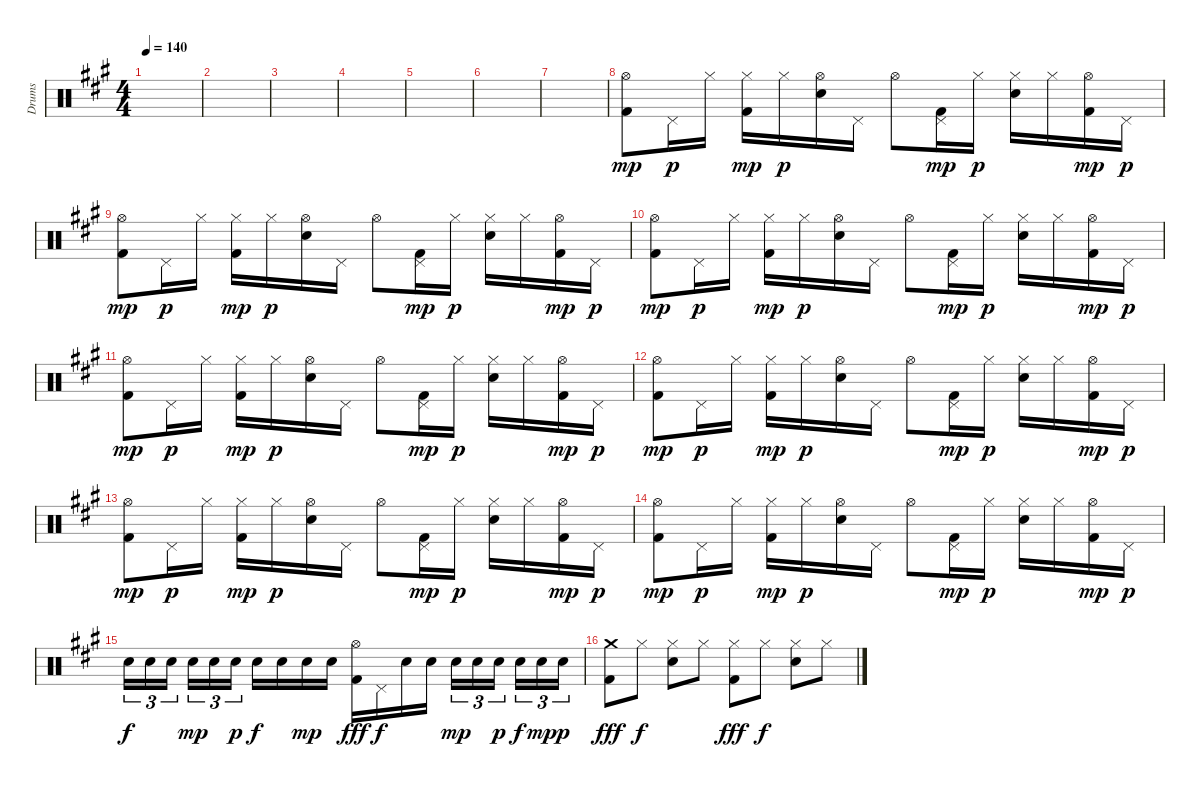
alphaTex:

\track ("Drums" "Drums") {instrument percussion}
\staff {score}
\articulation defaults
\ts (4 4)
\tempo 140
\clef neutral
\ks a
|
|
|
|
|
|
|
("Hi-Hat (open)" "Kick (hit) 2").8{dy mp} "Pedal Hi-Hat (hit)".16{dy p} "Hi-Hat (closed)".16 ("Hi-Hat (closed)" "Kick (hit) 2").16{dy mp} "Hi-Hat (closed)".16{dy p} ("Hi-Hat (open)" "Electric Snare (hit)").16 "Pedal Hi-Hat (hit)".16 "Hi-Hat (open)".8 ("Pedal Hi-Hat (hit)" "Kick (hit) 2").16{dy mp} "Hi-Hat (closed)".16{dy p} ("Hi-Hat (closed)" "Electric Snare (hit)").16 "Hi-Hat (closed)".16 ("Hi-Hat (open)" "Kick (hit) 2").16{dy mp} "Pedal Hi-Hat (hit)".16{dy p} |
("Hi-Hat (open)" "Kick (hit) 2").8{dy mp} "Pedal Hi-Hat (hit)".16{dy p} "Hi-Hat (closed)".16 ("Hi-Hat (closed)" "Kick (hit) 2").16{dy mp} "Hi-Hat (closed)".16{dy p} ("Hi-Hat (open)" "Electric Snare (hit)").16 "Pedal Hi-Hat (hit)".16 "Hi-Hat (open)".8 ("Pedal Hi-Hat (hit)" "Kick (hit) 2").16{dy mp} "Hi-Hat (closed)".16{dy p} ("Hi-Hat (closed)" "Electric Snare (hit)").16 "Hi-Hat (closed)".16 ("Hi-Hat (open)" "Kick (hit) 2").16{dy mp} "Pedal Hi-Hat (hit)".16{dy p} |
("Hi-Hat (open)" "Kick (hit) 2").8{dy mp} "Pedal Hi-Hat (hit)".16{dy p} "Hi-Hat (closed)".16 ("Hi-Hat (closed)" "Kick (hit) 2").16{dy mp} "Hi-Hat (closed)".16{dy p} ("Hi-Hat (open)" "Electric Snare (hit)").16 "Pedal Hi-Hat (hit)".16 "Hi-Hat (open)".8 ("Pedal Hi-Hat (hit)" "Kick (hit) 2").16{dy mp} "Hi-Hat (closed)".16{dy p} ("Hi-Hat (closed)" "Electric Snare (hit)").16 "Hi-Hat (closed)".16 ("Hi-Hat (open)" "Kick (hit) 2").16{dy mp} "Pedal Hi-Hat (hit)".16{dy p} |
("Hi-Hat (open)" "Kick (hit) 2").8{dy mp} "Pedal Hi-Hat (hit)".16{dy p} "Hi-Hat (closed)".16 ("Hi-Hat (closed)" "Kick (hit) 2").16{dy mp} "Hi-Hat (closed)".16{dy p} ("Hi-Hat (open)" "Electric Snare (hit)").16 "Pedal Hi-Hat (hit)".16 "Hi-Hat (open)".8 ("Pedal Hi-Hat (hit)" "Kick (hit) 2").16{dy mp} "Hi-Hat (closed)".16{dy p} ("Hi-Hat (closed)" "Electric Snare (hit)").16 "Hi-Hat (closed)".16 ("Hi-Hat (open)" "Kick (hit) 2").16{dy mp} "Pedal Hi-Hat (hit)".16{dy p} |
("Hi-Hat (open)" "Kick (hit) 2").8{dy mp} "Pedal Hi-Hat (hit)".16{dy p} "Hi-Hat (closed)".16 ("Hi-Hat (closed)" "Kick (hit) 2").16{dy mp} "Hi-Hat (closed)".16{dy p} ("Hi-Hat (open)" "Electric Snare (hit)").16 "Pedal Hi-Hat (hit)".16 "Hi-Hat (open)".8 ("Pedal Hi-Hat (hit)" "Kick (hit) 2").16{dy mp} "Hi-Hat (closed)".16{dy p} ("Hi-Hat (closed)" "Electric Snare (hit)").16 "Hi-Hat (closed)".16 ("Hi-Hat (open)" "Kick (hit) 2").16{dy mp} "Pedal Hi-Hat (hit)".16{dy p} |
("Hi-Hat (open)" "Kick (hit) 2").8{dy mp} "Pedal Hi-Hat (hit)".16{dy p} "Hi-Hat (closed)".16 ("Hi-Hat (closed)" "Kick (hit) 2").16{dy mp} "Hi-Hat (closed)".16{dy p} ("Hi-Hat (open)" "Electric Snare (hit)").16 "Pedal Hi-Hat (hit)".16 "Hi-Hat (open)".8 ("Pedal Hi-Hat (hit)" "Kick (hit) 2").16{dy mp} "Hi-Hat (closed)".16{dy p} ("Hi-Hat (closed)" "Electric Snare (hit)").16 "Hi-Hat (closed)".16 ("Hi-Hat (open)" "Kick (hit) 2").16{dy mp} "Pedal Hi-Hat (hit)".16{dy p} |
("Hi-Hat (open)" "Kick (hit) 2").8{dy mp} "Pedal Hi-Hat (hit)".16{dy p} "Hi-Hat (closed)".16 ("Hi-Hat (closed)" "Kick (hit) 2").16{dy mp} "Hi-Hat (closed)".16{dy p} ("Hi-Hat (open)" "Electric Snare (hit)").16 "Pedal Hi-Hat (hit)".16 "Hi-Hat (open)".8 ("Pedal Hi-Hat (hit)" "Kick (hit) 2").16{dy mp} "Hi-Hat (closed)".16{dy p} ("Hi-Hat (closed)" "Electric Snare (hit)").16 "Hi-Hat (closed)".16 ("Hi-Hat (open)" "Kick (hit) 2").16{dy mp} "Pedal Hi-Hat (hit)".16{dy p} |
"Electric Snare (hit)".16{tu (3 2) dy f} "Electric Snare (hit)".16{tu (3 2)} "Electric Snare (hit)".16{tu (3 2)} "Electric Snare (hit)".16{tu (3 2) dy mp} "Electric Snare (hit)".16{tu (3 2)} "Electric Snare (hit)".16{tu (3 2) dy p} "Electric Snare (hit)".16{dy f} "Electric Snare (hit)".16 "Electric Snare (hit)".16{dy mp} "Electric Snare (hit)".16 ("Hi-Hat (open)" "Kick (hit) 2").16{dy fff} "Pedal Hi-Hat (hit)".16{dy f} "Electric Snare (hit)".16 "Electric Snare (hit)".16 "Electric Snare (hit)".16{tu (3 2) dy mp} "Electric Snare (hit)".16{tu (3 2)} "Electric Snare (hit)".16{tu (3 2) dy p} "Electric Snare (hit)".16{tu (3 2) dy f} "Electric Snare (hit)".16{tu (3 2) dy mp} "Electric Snare (hit)".16{tu (3 2) dy p} |
("Crash medium (hit)" "Kick (hit) 2").8{dy fff} "Hi-Hat (closed)".8{dy f} ("Hi-Hat (closed)" "Electric Snare (hit)").8 "Hi-Hat (closed)".8 ("Hi-Hat (closed)" "Kick (hit) 2").8{dy fff} "Hi-Hat (closed)".8{dy f} ("Hi-Hat (closed)" "Electric Snare (hit)").8 "Hi-Hat (closed)".8
